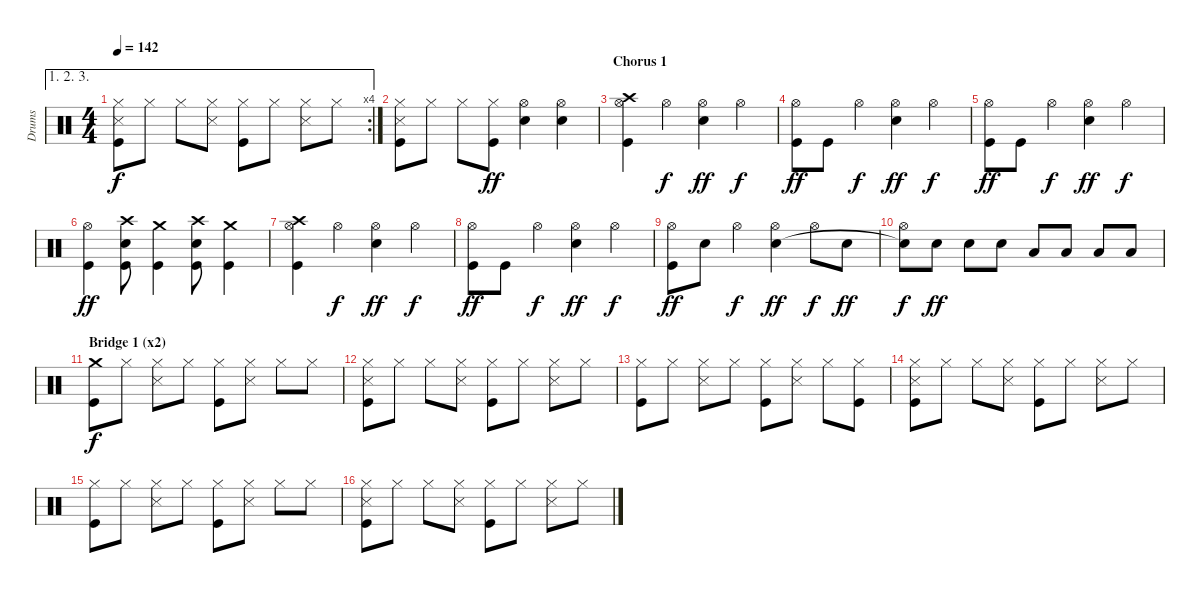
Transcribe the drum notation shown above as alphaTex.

\track ("Drums" "Drums") {instrument percussion}
\staff {score}
\articulation defaults
\ae (1 2 3)
\rc 4
\ts (4 4)
\tempo 142
\clef neutral
\ks c
("Hi-Hat (closed)" "Snare (side stick) 3" "Kick (hit)").8{dy f} "Hi-Hat (closed)".8 "Hi-Hat (closed)".8 ("Hi-Hat (closed)" "Snare (side stick) 3").8 ("Hi-Hat (closed)" "Kick (hit)").8 "Hi-Hat (closed)".8 ("Hi-Hat (closed)" "Snare (side stick) 3").8 "Hi-Hat (closed)".8 |
("Hi-Hat (closed)" "Snare (side stick) 3" "Kick (hit)").8 "Hi-Hat (closed)".8 "Hi-Hat (closed)".8 ("Hi-Hat (closed)" "Kick (hit)").8{dy ff} ("Hi-Hat (open)" "Snare (hit) 2").4 ("Hi-Hat (open)" "Snare (hit) 2").4 |
\section ("" "Chorus 1")
("Hi-Hat (open)" "Crash high (hit)" "Kick (hit)").4 "Hi-Hat (open)".4{dy f} ("Hi-Hat (open)" "Snare (hit) 2").4{dy ff} "Hi-Hat (open)".4{dy f} |
("Hi-Hat (open)" "Kick (hit)").8{dy ff} "Kick (hit)".8 "Hi-Hat (open)".4{dy f} ("Hi-Hat (open)" "Snare (hit) 2").4{dy ff} "Hi-Hat (open)".4{dy f} |
("Hi-Hat (open)" "Kick (hit)").8{dy ff} "Kick (hit)".8 "Hi-Hat (open)".4{dy f} ("Hi-Hat (open)" "Snare (hit) 2").4{dy ff} "Hi-Hat (open)".4{dy f} |
("Hi-Hat (open)" "Kick (hit)").4{dy ff} ("Crash high (hit)" "Snare (hit) 2" "Kick (hit)").8 ("Crash medium (hit)" "Kick (hit)").4 ("Crash high (hit)" "Snare (hit) 2" "Kick (hit)").8 ("Crash medium (hit)" "Kick (hit)").4 |
("Hi-Hat (open)" "Crash high (hit)" "Kick (hit)").4 "Hi-Hat (open)".4{dy f} ("Hi-Hat (open)" "Snare (hit) 2").4{dy ff} "Hi-Hat (open)".4{dy f} |
("Hi-Hat (open)" "Kick (hit)").8{dy ff} "Kick (hit)".8 "Hi-Hat (open)".4{dy f} ("Hi-Hat (open)" "Snare (hit) 2").4{dy ff} "Hi-Hat (open)".4{dy f} |
("Hi-Hat (open)" "Kick (hit)").8{dy ff} "Snare (hit) 2".8 "Hi-Hat (open)".4{dy f} ("Hi-Hat (open)" "Snare (hit) 2").4{dy ff} "Hi-Hat (open)".8{dy f} "Snare (hit) 2".8{dy ff} |
("Hi-Hat (open)" "Snare (hit) 2"{t}).8{dy f} "Snare (hit) 2".8{dy ff} "Snare (hit) 2".8 "Snare (hit) 2".8 "Low Tom (hit)".8 "Low Tom (hit)".8 "Low Tom (hit)".8 "Low Tom (hit)".8 |
\section ("" "Bridge 1 (x2)")
("Crash medium (hit)" "Kick (hit)").8{dy f} "Hi-Hat (closed)".8 ("Hi-Hat (closed)" "Snare (side stick) 3").8 "Hi-Hat (closed)".8 ("Hi-Hat (closed)" "Kick (hit)").8 ("Hi-Hat (closed)" "Snare (side stick) 3").8 "Hi-Hat (closed)".8 "Hi-Hat (closed)".8 |
("Hi-Hat (closed)" "Snare (side stick) 3" "Kick (hit)").8 "Hi-Hat (closed)".8 "Hi-Hat (closed)".8 ("Hi-Hat (closed)" "Snare (side stick) 3").8 ("Hi-Hat (closed)" "Kick (hit)").8 "Hi-Hat (closed)".8 ("Hi-Hat (closed)" "Snare (side stick) 3").8 "Hi-Hat (closed)".8 |
("Hi-Hat (closed)" "Kick (hit)").8 "Hi-Hat (closed)".8 ("Hi-Hat (closed)" "Snare (side stick) 3").8 "Hi-Hat (closed)".8 ("Hi-Hat (closed)" "Kick (hit)").8 ("Hi-Hat (closed)" "Snare (side stick) 3").8 "Hi-Hat (closed)".8 ("Hi-Hat (closed)" "Kick (hit)").8 |
("Hi-Hat (closed)" "Snare (side stick) 3" "Kick (hit)").8 "Hi-Hat (closed)".8 "Hi-Hat (closed)".8 ("Hi-Hat (closed)" "Snare (side stick) 3").8 ("Hi-Hat (closed)" "Kick (hit)").8 "Hi-Hat (closed)".8 ("Hi-Hat (closed)" "Snare (side stick) 3").8 "Hi-Hat (closed)".8 |
("Hi-Hat (closed)" "Kick (hit)").8 "Hi-Hat (closed)".8 ("Hi-Hat (closed)" "Snare (side stick) 3").8 "Hi-Hat (closed)".8 ("Hi-Hat (closed)" "Kick (hit)").8 ("Hi-Hat (closed)" "Snare (side stick) 3").8 "Hi-Hat (closed)".8 "Hi-Hat (closed)".8 |
("Hi-Hat (closed)" "Snare (side stick) 3" "Kick (hit)").8 "Hi-Hat (closed)".8 "Hi-Hat (closed)".8 ("Hi-Hat (closed)" "Snare (side stick) 3").8 ("Hi-Hat (closed)" "Kick (hit)").8 "Hi-Hat (closed)".8 ("Hi-Hat (closed)" "Snare (side stick) 3").8 "Hi-Hat (closed)".8
